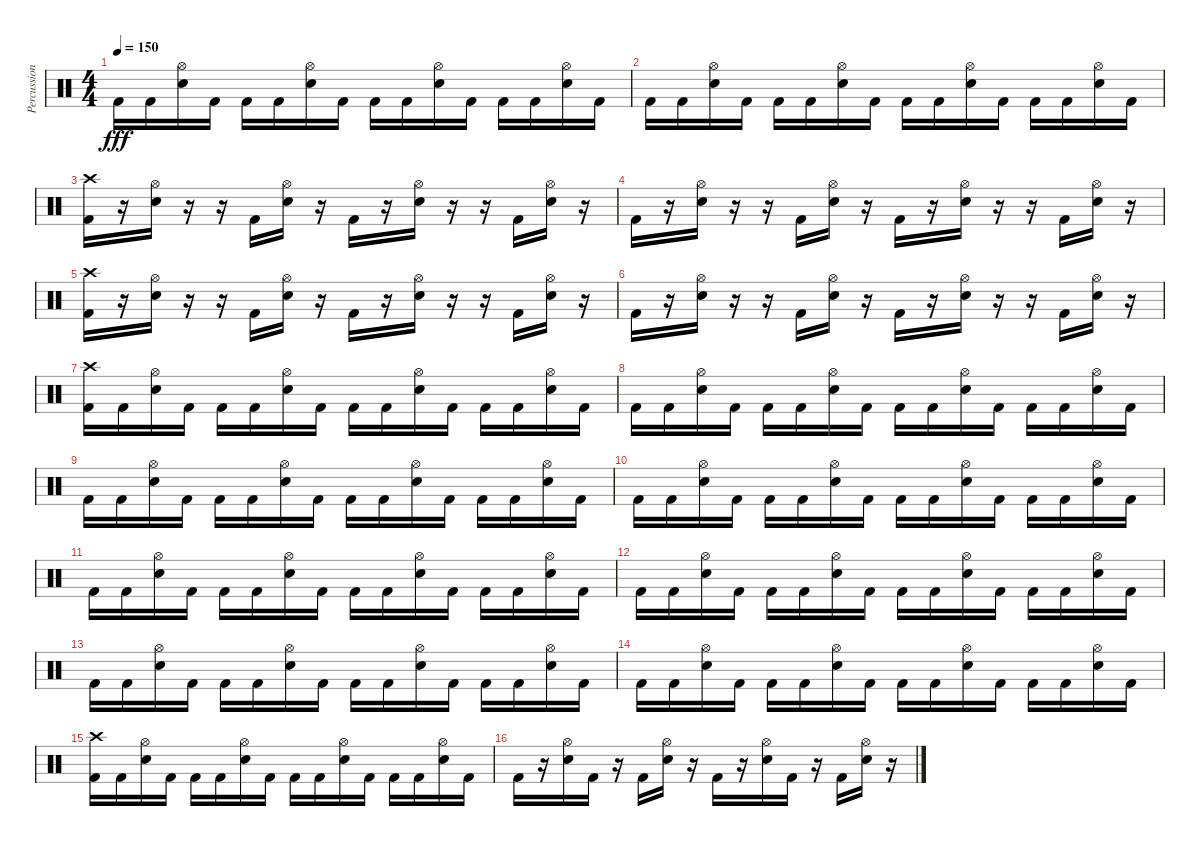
\track ("Percussion" "Percussion") {instrument percussion}
\staff {score}
\articulation defaults
\ts (4 4)
\tempo 150
\clef neutral
\ks c "Kick (hit) 2".16{dy fff} "Kick (hit) 2".16
("Snare (hit) 2" "Hi-Hat (open)").16 "Kick (hit) 2".16 "Kick (hit) 2".16 "Kick (hit) 2".16 ("Snare (hit) 2" "Hi-Hat (open)").16 "Kick (hit) 2".16 "Kick (hit) 2".16 "Kick (hit) 2".16 ("Snare (hit) 2" "Hi-Hat (open)").16 "Kick (hit) 2".16 "Kick (hit) 2".16 "Kick (hit) 2".16 ("Snare (hit) 2" "Hi-Hat (open)").16 "Kick (hit) 2".16 |
"Kick (hit) 2".16 "Kick (hit) 2".16 ("Snare (hit) 2" "Hi-Hat (open)").16 "Kick (hit) 2".16 "Kick (hit) 2".16 "Kick (hit) 2".16 ("Snare (hit) 2" "Hi-Hat (open)").16 "Kick (hit) 2".16 "Kick (hit) 2".16 "Kick (hit) 2".16 ("Snare (hit) 2" "Hi-Hat (open)").16 "Kick (hit) 2".16 "Kick (hit) 2".16 "Kick (hit) 2".16 ("Snare (hit) 2" "Hi-Hat (open)").16 "Kick (hit) 2".16 |
("Kick (hit) 2" "Crash high (hit)").16 r.16 ("Snare (hit) 2" "Hi-Hat (open)").16 r.16 r.16 "Kick (hit) 2".16 ("Snare (hit) 2" "Hi-Hat (open)").16 r.16 "Kick (hit) 2".16 r.16 ("Snare (hit) 2" "Hi-Hat (open)").16 r.16 r.16 "Kick (hit) 2".16 ("Snare (hit) 2" "Hi-Hat (open)").16 r.16 |
"Kick (hit) 2".16 r.16 ("Snare (hit) 2" "Hi-Hat (open)").16 r.16 r.16 "Kick (hit) 2".16 ("Snare (hit) 2" "Hi-Hat (open)").16 r.16 "Kick (hit) 2".16 r.16 ("Snare (hit) 2" "Hi-Hat (open)").16 r.16 r.16 "Kick (hit) 2".16 ("Snare (hit) 2" "Hi-Hat (open)").16 r.16 |
("Kick (hit) 2" "Crash high (hit)").16 r.16 ("Snare (hit) 2" "Hi-Hat (open)").16 r.16 r.16 "Kick (hit) 2".16 ("Snare (hit) 2" "Hi-Hat (open)").16 r.16 "Kick (hit) 2".16 r.16 ("Snare (hit) 2" "Hi-Hat (open)").16 r.16 r.16 "Kick (hit) 2".16 ("Snare (hit) 2" "Hi-Hat (open)").16 r.16 |
"Kick (hit) 2".16 r.16 ("Snare (hit) 2" "Hi-Hat (open)").16 r.16 r.16 "Kick (hit) 2".16 ("Snare (hit) 2" "Hi-Hat (open)").16 r.16 "Kick (hit) 2".16 r.16 ("Snare (hit) 2" "Hi-Hat (open)").16 r.16 r.16 "Kick (hit) 2".16 ("Snare (hit) 2" "Hi-Hat (open)").16 r.16 |
("Kick (hit) 2" "Crash high (hit)").16 "Kick (hit) 2".16 ("Snare (hit) 2" "Hi-Hat (open)").16 "Kick (hit) 2".16 "Kick (hit) 2".16 "Kick (hit) 2".16 ("Snare (hit) 2" "Hi-Hat (open)").16 "Kick (hit) 2".16 "Kick (hit) 2".16 "Kick (hit) 2".16 ("Snare (hit) 2" "Hi-Hat (open)").16 "Kick (hit) 2".16 "Kick (hit) 2".16 "Kick (hit) 2".16 ("Snare (hit) 2" "Hi-Hat (open)").16 "Kick (hit) 2".16 |
"Kick (hit) 2".16 "Kick (hit) 2".16 ("Snare (hit) 2" "Hi-Hat (open)").16 "Kick (hit) 2".16 "Kick (hit) 2".16 "Kick (hit) 2".16 ("Snare (hit) 2" "Hi-Hat (open)").16 "Kick (hit) 2".16 "Kick (hit) 2".16 "Kick (hit) 2".16 ("Snare (hit) 2" "Hi-Hat (open)").16 "Kick (hit) 2".16 "Kick (hit) 2".16 "Kick (hit) 2".16 ("Snare (hit) 2" "Hi-Hat (open)").16 "Kick (hit) 2".16 |
"Kick (hit) 2".16 "Kick (hit) 2".16 ("Snare (hit) 2" "Hi-Hat (open)").16 "Kick (hit) 2".16 "Kick (hit) 2".16 "Kick (hit) 2".16 ("Snare (hit) 2" "Hi-Hat (open)").16 "Kick (hit) 2".16 "Kick (hit) 2".16 "Kick (hit) 2".16 ("Snare (hit) 2" "Hi-Hat (open)").16 "Kick (hit) 2".16 "Kick (hit) 2".16 "Kick (hit) 2".16 ("Snare (hit) 2" "Hi-Hat (open)").16 "Kick (hit) 2".16 |
"Kick (hit) 2".16 "Kick (hit) 2".16 ("Snare (hit) 2" "Hi-Hat (open)").16 "Kick (hit) 2".16 "Kick (hit) 2".16 "Kick (hit) 2".16 ("Snare (hit) 2" "Hi-Hat (open)").16 "Kick (hit) 2".16 "Kick (hit) 2".16 "Kick (hit) 2".16 ("Snare (hit) 2" "Hi-Hat (open)").16 "Kick (hit) 2".16 "Kick (hit) 2".16 "Kick (hit) 2".16 ("Snare (hit) 2" "Hi-Hat (open)").16 "Kick (hit) 2".16 |
"Kick (hit) 2".16 "Kick (hit) 2".16 ("Snare (hit) 2" "Hi-Hat (open)").16 "Kick (hit) 2".16 "Kick (hit) 2".16 "Kick (hit) 2".16 ("Snare (hit) 2" "Hi-Hat (open)").16 "Kick (hit) 2".16 "Kick (hit) 2".16 "Kick (hit) 2".16 ("Snare (hit) 2" "Hi-Hat (open)").16 "Kick (hit) 2".16 "Kick (hit) 2".16 "Kick (hit) 2".16 ("Snare (hit) 2" "Hi-Hat (open)").16 "Kick (hit) 2".16 |
"Kick (hit) 2".16 "Kick (hit) 2".16 ("Snare (hit) 2" "Hi-Hat (open)").16 "Kick (hit) 2".16 "Kick (hit) 2".16 "Kick (hit) 2".16 ("Snare (hit) 2" "Hi-Hat (open)").16 "Kick (hit) 2".16 "Kick (hit) 2".16 "Kick (hit) 2".16 ("Snare (hit) 2" "Hi-Hat (open)").16 "Kick (hit) 2".16 "Kick (hit) 2".16 "Kick (hit) 2".16 ("Snare (hit) 2" "Hi-Hat (open)").16 "Kick (hit) 2".16 |
"Kick (hit) 2".16 "Kick (hit) 2".16 ("Snare (hit) 2" "Hi-Hat (open)").16 "Kick (hit) 2".16 "Kick (hit) 2".16 "Kick (hit) 2".16 ("Snare (hit) 2" "Hi-Hat (open)").16 "Kick (hit) 2".16 "Kick (hit) 2".16 "Kick (hit) 2".16 ("Snare (hit) 2" "Hi-Hat (open)").16 "Kick (hit) 2".16 "Kick (hit) 2".16 "Kick (hit) 2".16 ("Snare (hit) 2" "Hi-Hat (open)").16 "Kick (hit) 2".16 |
"Kick (hit) 2".16 "Kick (hit) 2".16 ("Snare (hit) 2" "Hi-Hat (open)").16 "Kick (hit) 2".16 "Kick (hit) 2".16 "Kick (hit) 2".16 ("Snare (hit) 2" "Hi-Hat (open)").16 "Kick (hit) 2".16 "Kick (hit) 2".16 "Kick (hit) 2".16 ("Snare (hit) 2" "Hi-Hat (open)").16 "Kick (hit) 2".16 "Kick (hit) 2".16 "Kick (hit) 2".16 ("Snare (hit) 2" "Hi-Hat (open)").16 "Kick (hit) 2".16 |
("Kick (hit) 2" "Crash high (hit)").16 "Kick (hit) 2".16 ("Snare (hit) 2" "Hi-Hat (open)").16 "Kick (hit) 2".16 "Kick (hit) 2".16 "Kick (hit) 2".16 ("Snare (hit) 2" "Hi-Hat (open)").16 "Kick (hit) 2".16 "Kick (hit) 2".16 "Kick (hit) 2".16 ("Snare (hit) 2" "Hi-Hat (open)").16 "Kick (hit) 2".16 "Kick (hit) 2".16 "Kick (hit) 2".16 ("Snare (hit) 2" "Hi-Hat (open)").16 "Kick (hit) 2".16 |
"Kick (hit) 2".16 r.16 ("Snare (hit) 2" "Hi-Hat (open)").16 "Kick (hit) 2".16 r.16 "Kick (hit) 2".16 ("Snare (hit) 2" "Hi-Hat (open)").16 r.16 "Kick (hit) 2".16 r.16 ("Snare (hit) 2" "Hi-Hat (open)").16 "Kick (hit) 2".16 r.16 "Kick (hit) 2".16 ("Snare (hit) 2" "Hi-Hat (open)").16 r.16
